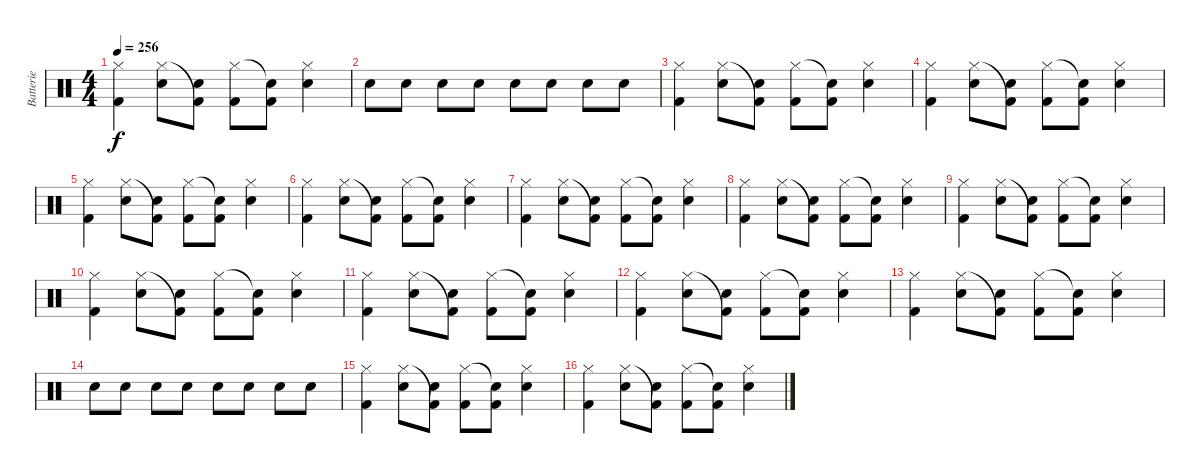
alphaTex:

\track ("Batterie" "Batterie") {instrument percussion}
\staff {score}
\articulation defaults
\ts (4 4)
\tempo 256
\clef neutral
\ks c
("Hi-Hat (closed)" "Kick (hit) 2").4{dy f} ("Hi-Hat (closed)" "Snare (hit) 2").8 ("Kick (hit) 2"{t} "Snare (hit) 2").8 ("Hi-Hat (closed)" "Kick (hit) 2").8 ("Snare (hit)"{t} "Kick (hit) 2").8 ("Hi-Hat (closed)" "Snare (hit) 2").4 |
"Snare (hit) 2".8 "Snare (hit) 2".8 "Snare (hit) 2".8 "Snare (hit) 2".8 "Snare (hit) 2".8 "Snare (hit) 2".8 "Snare (hit) 2".8 "Snare (hit) 2".8 |
("Hi-Hat (closed)" "Kick (hit) 2").4 ("Hi-Hat (closed)" "Snare (hit) 2").8 ("Kick (hit) 2"{t} "Snare (hit) 2").8 ("Hi-Hat (closed)" "Kick (hit) 2").8 ("Snare (hit)"{t} "Kick (hit) 2").8 ("Hi-Hat (closed)" "Snare (hit) 2").4 |
("Hi-Hat (closed)" "Kick (hit) 2").4 ("Hi-Hat (closed)" "Snare (hit) 2").8 ("Kick (hit) 2"{t} "Snare (hit) 2").8 ("Hi-Hat (closed)" "Kick (hit) 2").8 ("Snare (hit)"{t} "Kick (hit) 2").8 ("Hi-Hat (closed)" "Snare (hit) 2").4 |
("Hi-Hat (closed)" "Kick (hit) 2").4 ("Hi-Hat (closed)" "Snare (hit) 2").8 ("Kick (hit) 2"{t} "Snare (hit) 2").8 ("Hi-Hat (closed)" "Kick (hit) 2").8 ("Snare (hit)"{t} "Kick (hit) 2").8 ("Hi-Hat (closed)" "Snare (hit) 2").4 |
("Hi-Hat (closed)" "Kick (hit) 2").4 ("Hi-Hat (closed)" "Snare (hit) 2").8 ("Kick (hit) 2"{t} "Snare (hit) 2").8 ("Hi-Hat (closed)" "Kick (hit) 2").8 ("Snare (hit)"{t} "Kick (hit) 2").8 ("Hi-Hat (closed)" "Snare (hit) 2").4 |
("Hi-Hat (closed)" "Kick (hit) 2").4 ("Hi-Hat (closed)" "Snare (hit) 2").8 ("Kick (hit) 2"{t} "Snare (hit) 2").8 ("Hi-Hat (closed)" "Kick (hit) 2").8 ("Snare (hit)"{t} "Kick (hit) 2").8 ("Hi-Hat (closed)" "Snare (hit) 2").4 |
("Hi-Hat (closed)" "Kick (hit) 2").4 ("Hi-Hat (closed)" "Snare (hit) 2").8 ("Kick (hit) 2"{t} "Snare (hit) 2").8 ("Hi-Hat (closed)" "Kick (hit) 2").8 ("Snare (hit)"{t} "Kick (hit) 2").8 ("Hi-Hat (closed)" "Snare (hit) 2").4 |
("Hi-Hat (closed)" "Kick (hit) 2").4 ("Hi-Hat (closed)" "Snare (hit) 2").8 ("Kick (hit) 2"{t} "Snare (hit) 2").8 ("Hi-Hat (closed)" "Kick (hit) 2").8 ("Snare (hit)"{t} "Kick (hit) 2").8 ("Hi-Hat (closed)" "Snare (hit) 2").4 |
("Hi-Hat (closed)" "Kick (hit) 2").4 ("Hi-Hat (closed)" "Snare (hit) 2").8 ("Kick (hit) 2"{t} "Snare (hit) 2").8 ("Hi-Hat (closed)" "Kick (hit) 2").8 ("Snare (hit)"{t} "Kick (hit) 2").8 ("Hi-Hat (closed)" "Snare (hit) 2").4 |
("Hi-Hat (closed)" "Kick (hit) 2").4 ("Hi-Hat (closed)" "Snare (hit) 2").8 ("Kick (hit) 2"{t} "Snare (hit) 2").8 ("Hi-Hat (closed)" "Kick (hit) 2").8 ("Snare (hit)"{t} "Kick (hit) 2").8 ("Hi-Hat (closed)" "Snare (hit) 2").4 |
("Hi-Hat (closed)" "Kick (hit) 2").4 ("Hi-Hat (closed)" "Snare (hit) 2").8 ("Kick (hit) 2"{t} "Snare (hit) 2").8 ("Hi-Hat (closed)" "Kick (hit) 2").8 ("Snare (hit)"{t} "Kick (hit) 2").8 ("Hi-Hat (closed)" "Snare (hit) 2").4 |
("Hi-Hat (closed)" "Kick (hit) 2").4 ("Hi-Hat (closed)" "Snare (hit) 2").8 ("Kick (hit) 2"{t} "Snare (hit) 2").8 ("Hi-Hat (closed)" "Kick (hit) 2").8 ("Snare (hit)"{t} "Kick (hit) 2").8 ("Hi-Hat (closed)" "Snare (hit) 2").4 |
"Snare (hit) 2".8 "Snare (hit) 2".8 "Snare (hit) 2".8 "Snare (hit) 2".8 "Snare (hit) 2".8 "Snare (hit) 2".8 "Snare (hit) 2".8 "Snare (hit) 2".8 |
("Hi-Hat (closed)" "Kick (hit) 2").4 ("Hi-Hat (closed)" "Snare (hit) 2").8 ("Kick (hit) 2"{t} "Snare (hit) 2").8 ("Hi-Hat (closed)" "Kick (hit) 2").8 ("Snare (hit)"{t} "Kick (hit) 2").8 ("Hi-Hat (closed)" "Snare (hit) 2").4 |
("Hi-Hat (closed)" "Kick (hit) 2").4 ("Hi-Hat (closed)" "Snare (hit) 2").8 ("Kick (hit) 2"{t} "Snare (hit) 2").8 ("Hi-Hat (closed)" "Kick (hit) 2").8 ("Snare (hit)"{t} "Kick (hit) 2").8 ("Hi-Hat (closed)" "Snare (hit) 2").4
